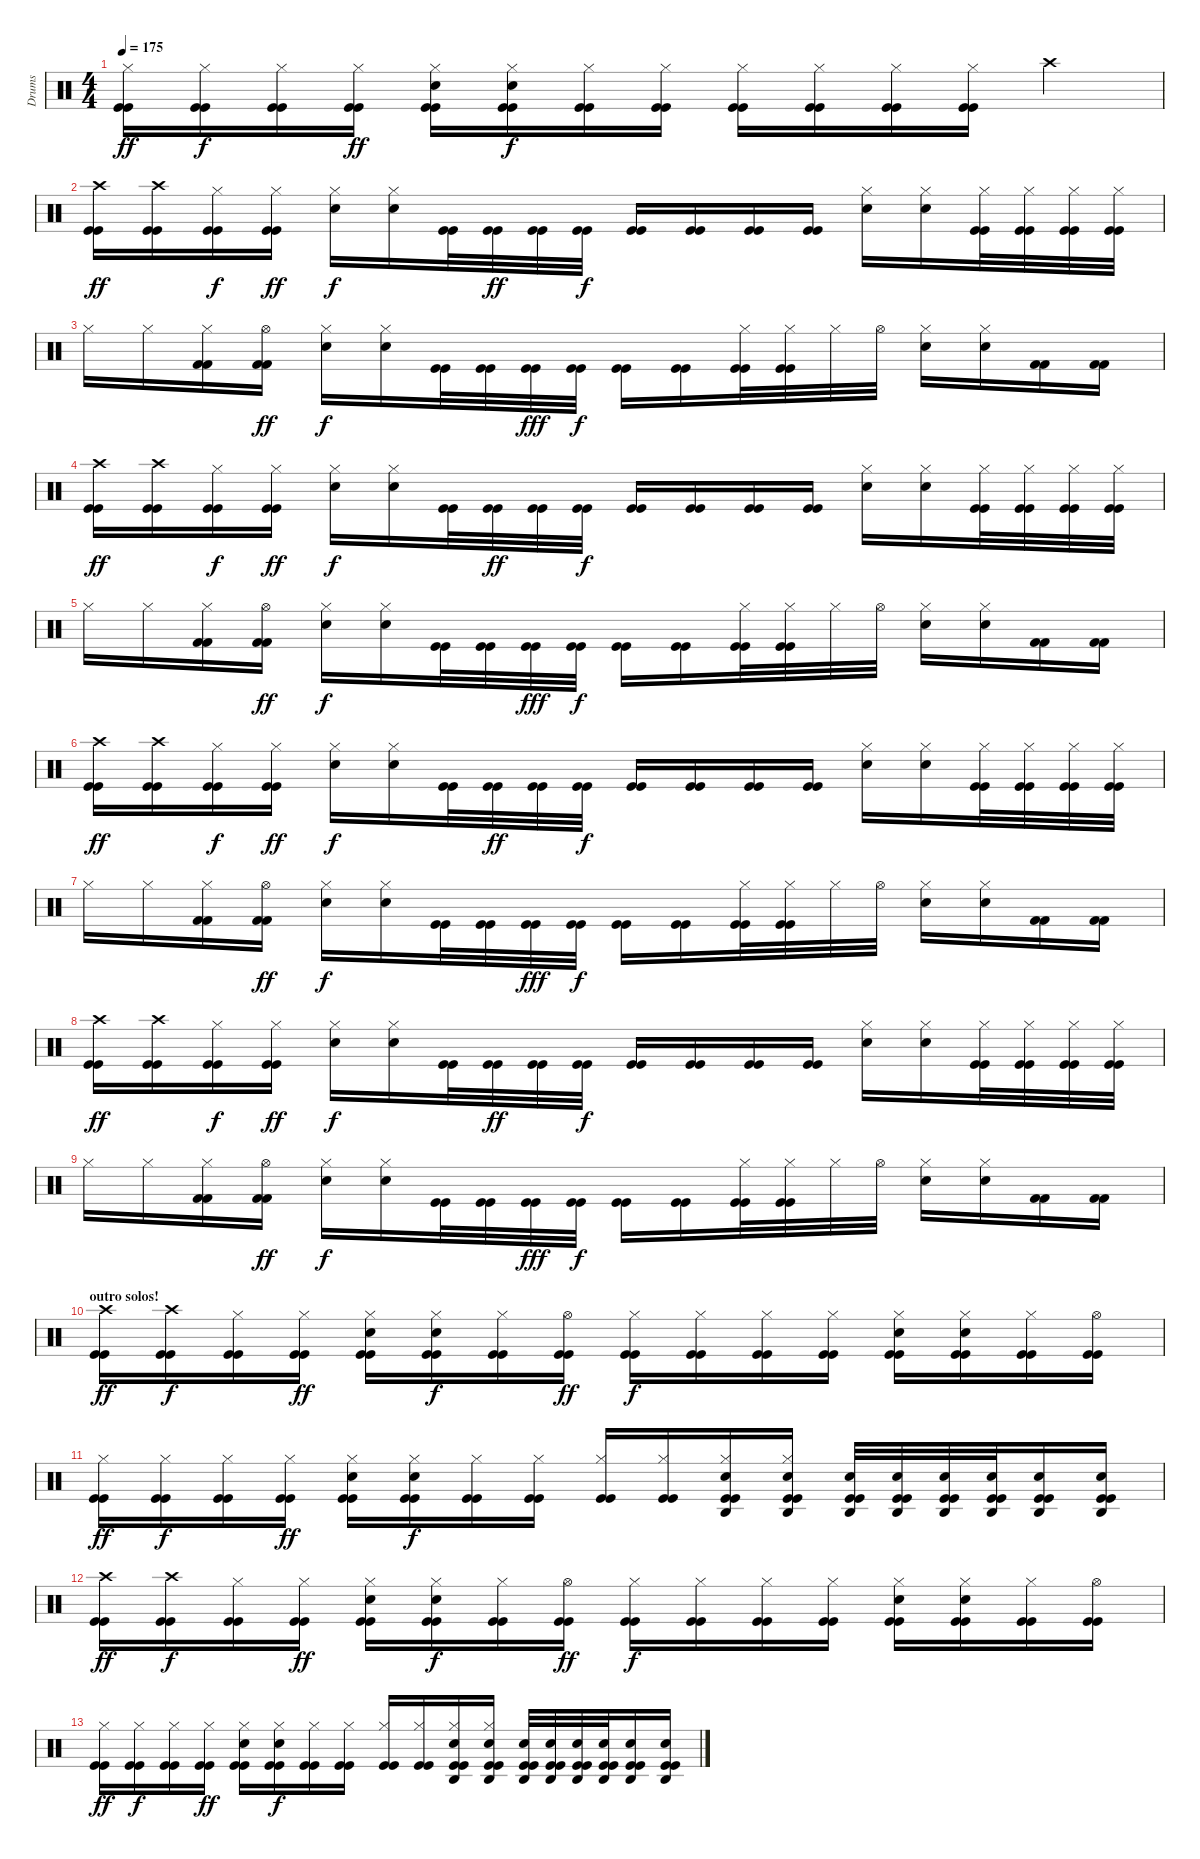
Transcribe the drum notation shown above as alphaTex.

\track ("Drums" "Drums") {instrument percussion}
\staff {score}
\articulation defaults
\ts (4 4)
\tempo 175
\clef neutral
\ks c
("Hi-Hat (closed)" "Kick (hit)" "Kick (hit)").16{dy ff} ("Hi-Hat (closed)" "Kick (hit)" "Kick (hit)").16{dy f} ("Hi-Hat (closed)" "Kick (hit)" "Kick (hit)").16 ("Hi-Hat (closed)" "Kick (hit)" "Kick (hit)").16{dy ff} ("Electric Snare (hit)" "Hi-Hat (closed)" "Kick (hit)" "Kick (hit)").16 ("Electric Snare (hit)" "Hi-Hat (closed)" "Kick (hit)" "Kick (hit)").16{dy f} ("Hi-Hat (closed)" "Kick (hit)" "Kick (hit)").16 ("Hi-Hat (closed)" "Kick (hit)" "Kick (hit)").16 ("Hi-Hat (closed)" "Kick (hit)" "Kick (hit)").16 ("Hi-Hat (closed)" "Kick (hit)" "Kick (hit)").16 ("Hi-Hat (closed)" "Kick (hit)" "Kick (hit)").16 ("Hi-Hat (closed)" "Kick (hit)" "Kick (hit)").16 "Crash high (hit)".4 |
("Crash high (hit)" "Kick (hit)" "Kick (hit)").16{dy ff} ("Crash high (hit)" "Kick (hit)" "Kick (hit)").16 ("Hi-Hat (closed)" "Kick (hit)" "Kick (hit)").16{dy f} ("Hi-Hat (closed)" "Kick (hit)" "Kick (hit)").16{dy ff} ("Electric Snare (hit)" "Hi-Hat (closed)").16{dy f} ("Electric Snare (hit)" "Hi-Hat (closed)").16 ("Kick (hit)" "Kick (hit)").32 ("Kick (hit)" "Kick (hit)").32{dy ff} ("Kick (hit)" "Kick (hit)").32 ("Kick (hit)" "Kick (hit)").32{dy f} ("Kick (hit)" "Kick (hit)").16 ("Kick (hit)" "Kick (hit)").16 ("Kick (hit)" "Kick (hit)").16 ("Kick (hit)" "Kick (hit)").16 ("Electric Snare (hit)" "Hi-Hat (closed)").16 ("Electric Snare (hit)" "Hi-Hat (closed)").16 ("Hi-Hat (closed)" "Kick (hit)" "Kick (hit)").32 ("Hi-Hat (closed)" "Kick (hit)" "Kick (hit)").32 ("Hi-Hat (closed)" "Kick (hit)" "Kick (hit)").32 ("Hi-Hat (closed)" "Kick (hit)" "Kick (hit)").32 |
"Hi-Hat (closed)".16 "Hi-Hat (closed)".16 ("Hi-Hat (closed)" "Kick (hit) 2" "Kick (hit) 2").16 ("Hi-Hat (open)" "Kick (hit) 2" "Kick (hit) 2").16{dy ff} ("Electric Snare (hit)" "Hi-Hat (closed)").16{dy f} ("Electric Snare (hit)" "Hi-Hat (closed)").16 ("Kick (hit)" "Kick (hit)").32 ("Kick (hit)" "Kick (hit)").32 ("Kick (hit)" "Kick (hit)").32{dy fff} ("Kick (hit)" "Kick (hit)").32{dy f} ("Kick (hit)" "Kick (hit)").16 ("Kick (hit)" "Kick (hit)").16 ("Hi-Hat (closed)" "Kick (hit)" "Kick (hit)").32 ("Hi-Hat (closed)" "Kick (hit)" "Kick (hit)").32 "Hi-Hat (closed)".32 "Hi-Hat (open)".32 ("Electric Snare (hit)" "Hi-Hat (closed)").16 ("Electric Snare (hit)" "Hi-Hat (closed)").16 ("Kick (hit) 2" "Kick (hit) 2").16 ("Kick (hit) 2" "Kick (hit) 2").16 |
("Crash high (hit)" "Kick (hit)" "Kick (hit)").16{dy ff} ("Crash high (hit)" "Kick (hit)" "Kick (hit)").16 ("Hi-Hat (closed)" "Kick (hit)" "Kick (hit)").16{dy f} ("Hi-Hat (closed)" "Kick (hit)" "Kick (hit)").16{dy ff} ("Electric Snare (hit)" "Hi-Hat (closed)").16{dy f} ("Electric Snare (hit)" "Hi-Hat (closed)").16 ("Kick (hit)" "Kick (hit)").32 ("Kick (hit)" "Kick (hit)").32{dy ff} ("Kick (hit)" "Kick (hit)").32 ("Kick (hit)" "Kick (hit)").32{dy f} ("Kick (hit)" "Kick (hit)").16 ("Kick (hit)" "Kick (hit)").16 ("Kick (hit)" "Kick (hit)").16 ("Kick (hit)" "Kick (hit)").16 ("Electric Snare (hit)" "Hi-Hat (closed)").16 ("Electric Snare (hit)" "Hi-Hat (closed)").16 ("Hi-Hat (closed)" "Kick (hit)" "Kick (hit)").32 ("Hi-Hat (closed)" "Kick (hit)" "Kick (hit)").32 ("Hi-Hat (closed)" "Kick (hit)" "Kick (hit)").32 ("Hi-Hat (closed)" "Kick (hit)" "Kick (hit)").32 |
"Hi-Hat (closed)".16 "Hi-Hat (closed)".16 ("Hi-Hat (closed)" "Kick (hit) 2" "Kick (hit) 2").16 ("Hi-Hat (open)" "Kick (hit) 2" "Kick (hit) 2").16{dy ff} ("Electric Snare (hit)" "Hi-Hat (closed)").16{dy f} ("Electric Snare (hit)" "Hi-Hat (closed)").16 ("Kick (hit)" "Kick (hit)").32 ("Kick (hit)" "Kick (hit)").32 ("Kick (hit)" "Kick (hit)").32{dy fff} ("Kick (hit)" "Kick (hit)").32{dy f} ("Kick (hit)" "Kick (hit)").16 ("Kick (hit)" "Kick (hit)").16 ("Hi-Hat (closed)" "Kick (hit)" "Kick (hit)").32 ("Hi-Hat (closed)" "Kick (hit)" "Kick (hit)").32 "Hi-Hat (closed)".32 "Hi-Hat (open)".32 ("Electric Snare (hit)" "Hi-Hat (closed)").16 ("Electric Snare (hit)" "Hi-Hat (closed)").16 ("Kick (hit) 2" "Kick (hit) 2").16 ("Kick (hit) 2" "Kick (hit) 2").16 |
("Crash high (hit)" "Kick (hit)" "Kick (hit)").16{dy ff} ("Crash high (hit)" "Kick (hit)" "Kick (hit)").16 ("Hi-Hat (closed)" "Kick (hit)" "Kick (hit)").16{dy f} ("Hi-Hat (closed)" "Kick (hit)" "Kick (hit)").16{dy ff} ("Electric Snare (hit)" "Hi-Hat (closed)").16{dy f} ("Electric Snare (hit)" "Hi-Hat (closed)").16 ("Kick (hit)" "Kick (hit)").32 ("Kick (hit)" "Kick (hit)").32{dy ff} ("Kick (hit)" "Kick (hit)").32 ("Kick (hit)" "Kick (hit)").32{dy f} ("Kick (hit)" "Kick (hit)").16 ("Kick (hit)" "Kick (hit)").16 ("Kick (hit)" "Kick (hit)").16 ("Kick (hit)" "Kick (hit)").16 ("Electric Snare (hit)" "Hi-Hat (closed)").16 ("Electric Snare (hit)" "Hi-Hat (closed)").16 ("Hi-Hat (closed)" "Kick (hit)" "Kick (hit)").32 ("Hi-Hat (closed)" "Kick (hit)" "Kick (hit)").32 ("Hi-Hat (closed)" "Kick (hit)" "Kick (hit)").32 ("Hi-Hat (closed)" "Kick (hit)" "Kick (hit)").32 |
"Hi-Hat (closed)".16 "Hi-Hat (closed)".16 ("Hi-Hat (closed)" "Kick (hit) 2" "Kick (hit) 2").16 ("Hi-Hat (open)" "Kick (hit) 2" "Kick (hit) 2").16{dy ff} ("Electric Snare (hit)" "Hi-Hat (closed)").16{dy f} ("Electric Snare (hit)" "Hi-Hat (closed)").16 ("Kick (hit)" "Kick (hit)").32 ("Kick (hit)" "Kick (hit)").32 ("Kick (hit)" "Kick (hit)").32{dy fff} ("Kick (hit)" "Kick (hit)").32{dy f} ("Kick (hit)" "Kick (hit)").16 ("Kick (hit)" "Kick (hit)").16 ("Hi-Hat (closed)" "Kick (hit)" "Kick (hit)").32 ("Hi-Hat (closed)" "Kick (hit)" "Kick (hit)").32 "Hi-Hat (closed)".32 "Hi-Hat (open)".32 ("Electric Snare (hit)" "Hi-Hat (closed)").16 ("Electric Snare (hit)" "Hi-Hat (closed)").16 ("Kick (hit) 2" "Kick (hit) 2").16 ("Kick (hit) 2" "Kick (hit) 2").16 |
("Crash high (hit)" "Kick (hit)" "Kick (hit)").16{dy ff} ("Crash high (hit)" "Kick (hit)" "Kick (hit)").16 ("Hi-Hat (closed)" "Kick (hit)" "Kick (hit)").16{dy f} ("Hi-Hat (closed)" "Kick (hit)" "Kick (hit)").16{dy ff} ("Electric Snare (hit)" "Hi-Hat (closed)").16{dy f} ("Electric Snare (hit)" "Hi-Hat (closed)").16 ("Kick (hit)" "Kick (hit)").32 ("Kick (hit)" "Kick (hit)").32{dy ff} ("Kick (hit)" "Kick (hit)").32 ("Kick (hit)" "Kick (hit)").32{dy f} ("Kick (hit)" "Kick (hit)").16 ("Kick (hit)" "Kick (hit)").16 ("Kick (hit)" "Kick (hit)").16 ("Kick (hit)" "Kick (hit)").16 ("Electric Snare (hit)" "Hi-Hat (closed)").16 ("Electric Snare (hit)" "Hi-Hat (closed)").16 ("Hi-Hat (closed)" "Kick (hit)" "Kick (hit)").32 ("Hi-Hat (closed)" "Kick (hit)" "Kick (hit)").32 ("Hi-Hat (closed)" "Kick (hit)" "Kick (hit)").32 ("Hi-Hat (closed)" "Kick (hit)" "Kick (hit)").32 |
"Hi-Hat (closed)".16 "Hi-Hat (closed)".16 ("Hi-Hat (closed)" "Kick (hit) 2" "Kick (hit) 2").16 ("Hi-Hat (open)" "Kick (hit) 2" "Kick (hit) 2").16{dy ff} ("Electric Snare (hit)" "Hi-Hat (closed)").16{dy f} ("Electric Snare (hit)" "Hi-Hat (closed)").16 ("Kick (hit)" "Kick (hit)").32 ("Kick (hit)" "Kick (hit)").32 ("Kick (hit)" "Kick (hit)").32{dy fff} ("Kick (hit)" "Kick (hit)").32{dy f} ("Kick (hit)" "Kick (hit)").16 ("Kick (hit)" "Kick (hit)").16 ("Hi-Hat (closed)" "Kick (hit)" "Kick (hit)").32 ("Hi-Hat (closed)" "Kick (hit)" "Kick (hit)").32 "Hi-Hat (closed)".32 "Hi-Hat (open)".32 ("Electric Snare (hit)" "Hi-Hat (closed)").16 ("Electric Snare (hit)" "Hi-Hat (closed)").16 ("Kick (hit) 2" "Kick (hit) 2").16 ("Kick (hit) 2" "Kick (hit) 2").16 |
\section ("" "outro solos!")
("Crash high (hit)" "Kick (hit)" "Kick (hit)").16{dy ff volume 3} ("Crash high (hit)" "Kick (hit)" "Kick (hit)").16{dy f} ("Hi-Hat (closed)" "Kick (hit)" "Kick (hit)").16 ("Hi-Hat (closed)" "Kick (hit)" "Kick (hit)").16{dy ff} ("Electric Snare (hit)" "Hi-Hat (closed)" "Kick (hit)" "Kick (hit)").16 ("Electric Snare (hit)" "Hi-Hat (closed)" "Kick (hit)" "Kick (hit)").16{dy f} ("Hi-Hat (closed)" "Kick (hit)" "Kick (hit)").16 ("Hi-Hat (open)" "Kick (hit)" "Kick (hit)").16{dy ff} ("Hi-Hat (closed)" "Kick (hit)" "Kick (hit)").16{dy f} ("Hi-Hat (closed)" "Kick (hit)" "Kick (hit)").16 ("Hi-Hat (closed)" "Kick (hit)" "Kick (hit)").16 ("Hi-Hat (closed)" "Kick (hit)" "Kick (hit)").16 ("Electric Snare (hit)" "Hi-Hat (closed)" "Kick (hit)" "Kick (hit)").16 ("Electric Snare (hit)" "Hi-Hat (closed)" "Kick (hit)" "Kick (hit)").16 ("Hi-Hat (closed)" "Kick (hit)" "Kick (hit)").16 ("Hi-Hat (open)" "Kick (hit)" "Kick (hit)").16 |
("Hi-Hat (closed)" "Kick (hit)" "Kick (hit)").16{dy ff} ("Hi-Hat (closed)" "Kick (hit)" "Kick (hit)").16{dy f} ("Hi-Hat (closed)" "Kick (hit)" "Kick (hit)").16 ("Hi-Hat (closed)" "Kick (hit)" "Kick (hit)").16{dy ff} ("Electric Snare (hit)" "Hi-Hat (closed)" "Kick (hit)" "Kick (hit)").16 ("Electric Snare (hit)" "Hi-Hat (closed)" "Kick (hit)" "Kick (hit)").16{dy f} ("Hi-Hat (closed)" "Kick (hit)" "Kick (hit)").16 ("Hi-Hat (closed)" "Kick (hit)" "Kick (hit)").16 ("Hi-Hat (closed)" "Kick (hit)" "Kick (hit)").16 ("Hi-Hat (closed)" "Kick (hit)" "Kick (hit)").16 ("Agogo high (hit)" "Electric Snare (hit)" "Hi-Hat (closed)" "Kick (hit)" "Kick (hit)").16 ("Agogo high (hit)" "Electric Snare (hit)" "Hi-Hat (closed)" "Kick (hit)" "Kick (hit)").16 ("Agogo high (hit)" "Electric Snare (hit)" "Kick (hit)" "Kick (hit)").32 ("Agogo high (hit)" "Electric Snare (hit)" "Kick (hit)" "Kick (hit)").32 ("Agogo high (hit)" "Electric Snare (hit)" "Kick (hit)" "Kick (hit)").32 ("Agogo high (hit)" "Electric Snare (hit)" "Kick (hit)" "Kick (hit)").32 ("Agogo high (hit)" "Electric Snare (hit)" "Kick (hit)" "Kick (hit)").16 ("Agogo high (hit)" "Electric Snare (hit)" "Kick (hit)" "Kick (hit)").16 |
("Crash high (hit)" "Kick (hit)" "Kick (hit)").16{dy ff} ("Crash high (hit)" "Kick (hit)" "Kick (hit)").16{dy f} ("Hi-Hat (closed)" "Kick (hit)" "Kick (hit)").16 ("Hi-Hat (closed)" "Kick (hit)" "Kick (hit)").16{dy ff} ("Electric Snare (hit)" "Hi-Hat (closed)" "Kick (hit)" "Kick (hit)").16 ("Electric Snare (hit)" "Hi-Hat (closed)" "Kick (hit)" "Kick (hit)").16{dy f} ("Hi-Hat (closed)" "Kick (hit)" "Kick (hit)").16 ("Hi-Hat (open)" "Kick (hit)" "Kick (hit)").16{dy ff} ("Hi-Hat (closed)" "Kick (hit)" "Kick (hit)").16{dy f} ("Hi-Hat (closed)" "Kick (hit)" "Kick (hit)").16 ("Hi-Hat (closed)" "Kick (hit)" "Kick (hit)").16 ("Hi-Hat (closed)" "Kick (hit)" "Kick (hit)").16 ("Electric Snare (hit)" "Hi-Hat (closed)" "Kick (hit)" "Kick (hit)").16 ("Electric Snare (hit)" "Hi-Hat (closed)" "Kick (hit)" "Kick (hit)").16 ("Hi-Hat (closed)" "Kick (hit)" "Kick (hit)").16 ("Hi-Hat (open)" "Kick (hit)" "Kick (hit)").16 |
("Hi-Hat (closed)" "Kick (hit)" "Kick (hit)").16{dy ff volume 0} ("Hi-Hat (closed)" "Kick (hit)" "Kick (hit)").16{dy f} ("Hi-Hat (closed)" "Kick (hit)" "Kick (hit)").16 ("Hi-Hat (closed)" "Kick (hit)" "Kick (hit)").16{dy ff} ("Electric Snare (hit)" "Hi-Hat (closed)" "Kick (hit)" "Kick (hit)").16 ("Electric Snare (hit)" "Hi-Hat (closed)" "Kick (hit)" "Kick (hit)").16{dy f} ("Hi-Hat (closed)" "Kick (hit)" "Kick (hit)").16 ("Hi-Hat (closed)" "Kick (hit)" "Kick (hit)").16 ("Hi-Hat (closed)" "Kick (hit)" "Kick (hit)").16 ("Hi-Hat (closed)" "Kick (hit)" "Kick (hit)").16 ("Agogo high (hit)" "Electric Snare (hit)" "Hi-Hat (closed)" "Kick (hit)" "Kick (hit)").16 ("Agogo high (hit)" "Electric Snare (hit)" "Hi-Hat (closed)" "Kick (hit)" "Kick (hit)").16 ("Agogo high (hit)" "Electric Snare (hit)" "Kick (hit)" "Kick (hit)").32 ("Agogo high (hit)" "Electric Snare (hit)" "Kick (hit)" "Kick (hit)").32 ("Agogo high (hit)" "Electric Snare (hit)" "Kick (hit)" "Kick (hit)").32 ("Agogo high (hit)" "Electric Snare (hit)" "Kick (hit)" "Kick (hit)").32 ("Agogo high (hit)" "Electric Snare (hit)" "Kick (hit)" "Kick (hit)").16 ("Agogo high (hit)" "Electric Snare (hit)" "Kick (hit)" "Kick (hit)").16
